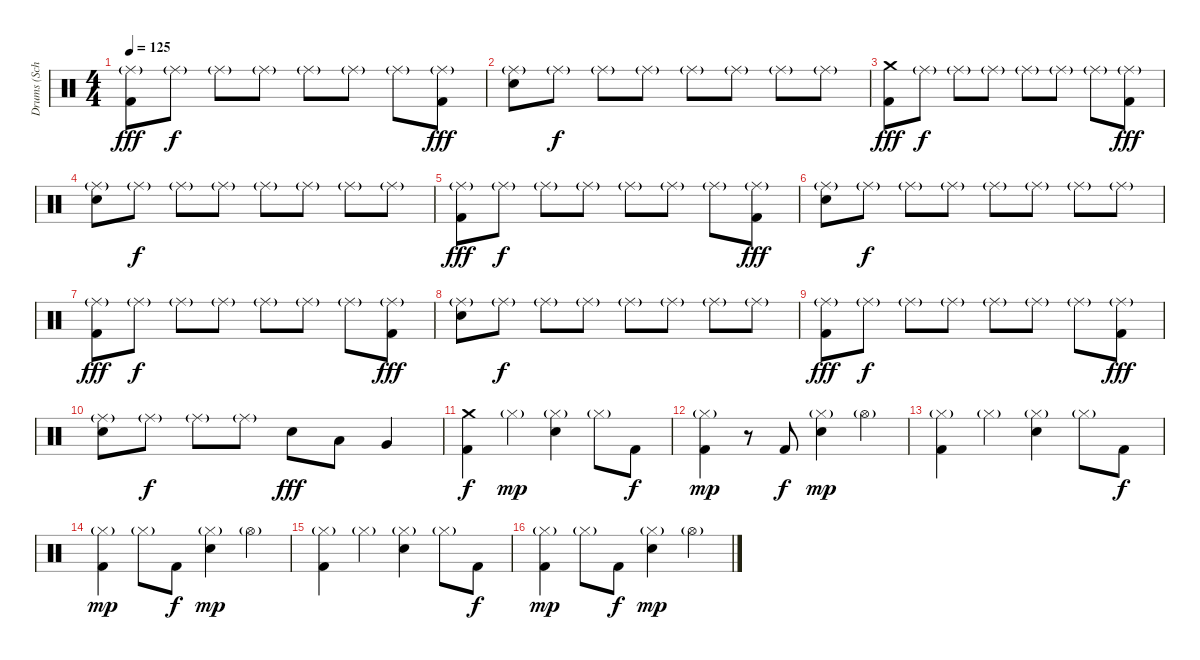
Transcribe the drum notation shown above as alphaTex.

\track ("Drums (Schill)" "Drums (Sch") {instrument percussion}
\staff {score}
\articulation defaults
\ts (4 4)
\tempo 125
\clef neutral
\ks c
("Ride (middle)"{g} "Kick (hit) 2").8{dy fff} "Ride (middle)"{g}.8{dy f} "Ride (middle)"{g}.8 "Ride (middle)"{g}.8 "Ride (middle)"{g}.8 "Ride (middle)"{g}.8 "Ride (middle)"{g}.8 ("Ride (middle)"{g} "Kick (hit) 2").8{dy fff} |
("Ride (middle)"{g} "Electric Snare (hit)").8 "Ride (middle)"{g}.8{dy f} "Ride (middle)"{g}.8 "Ride (middle)"{g}.8 "Ride (middle)"{g}.8 "Ride (middle)"{g}.8 "Ride (middle)"{g}.8 "Ride (middle)"{g}.8 |
("Crash medium (hit)" "Kick (hit) 2").8{dy fff} "Ride (middle)"{g}.8{dy f} "Ride (middle)"{g}.8 "Ride (middle)"{g}.8 "Ride (middle)"{g}.8 "Ride (middle)"{g}.8 "Ride (middle)"{g}.8 ("Ride (middle)"{g} "Kick (hit) 2").8{dy fff} |
("Ride (middle)"{g} "Electric Snare (hit)").8 "Ride (middle)"{g}.8{dy f} "Ride (middle)"{g}.8 "Ride (middle)"{g}.8 "Ride (middle)"{g}.8 "Ride (middle)"{g}.8 "Ride (middle)"{g}.8 "Ride (middle)"{g}.8 |
("Ride (middle)"{g} "Kick (hit) 2").8{dy fff} "Ride (middle)"{g}.8{dy f} "Ride (middle)"{g}.8 "Ride (middle)"{g}.8 "Ride (middle)"{g}.8 "Ride (middle)"{g}.8 "Ride (middle)"{g}.8 ("Ride (middle)"{g} "Kick (hit) 2").8{dy fff} |
("Ride (middle)"{g} "Electric Snare (hit)").8 "Ride (middle)"{g}.8{dy f} "Ride (middle)"{g}.8 "Ride (middle)"{g}.8 "Ride (middle)"{g}.8 "Ride (middle)"{g}.8 "Ride (middle)"{g}.8 "Ride (middle)"{g}.8 |
("Ride (middle)"{g} "Kick (hit) 2").8{dy fff} "Ride (middle)"{g}.8{dy f} "Ride (middle)"{g}.8 "Ride (middle)"{g}.8 "Ride (middle)"{g}.8 "Ride (middle)"{g}.8 "Ride (middle)"{g}.8 ("Ride (middle)"{g} "Kick (hit) 2").8{dy fff} |
("Ride (middle)"{g} "Electric Snare (hit)").8 "Ride (middle)"{g}.8{dy f} "Ride (middle)"{g}.8 "Ride (middle)"{g}.8 "Ride (middle)"{g}.8 "Ride (middle)"{g}.8 "Ride (middle)"{g}.8 "Ride (middle)"{g}.8 |
("Ride (middle)"{g} "Kick (hit) 2").8{dy fff} "Ride (middle)"{g}.8{dy f} "Ride (middle)"{g}.8 "Ride (middle)"{g}.8 "Ride (middle)"{g}.8 "Ride (middle)"{g}.8 "Ride (middle)"{g}.8 ("Ride (middle)"{g} "Kick (hit) 2").8{dy fff} |
("Ride (middle)"{g} "Electric Snare (hit)").8 "Ride (middle)"{g}.8{dy f} "Ride (middle)"{g}.8 "Ride (middle)"{g}.8 "Electric Snare (hit)".8{dy fff} "Low Tom (hit)".8 "Very Low Tom (hit)".4 |
("Crash medium (hit)" "Kick (hit) 2").4{dy f} "Hi-Hat (closed)"{g}.4{dy mp} ("Hi-Hat (closed)"{g} "Electric Snare (hit)").4 "Hi-Hat (closed)"{g}.8 "Kick (hit) 2".8{dy f} |
("Hi-Hat (closed)"{g} "Kick (hit) 2").4{dy mp} r.8 "Kick (hit) 2".8{dy f} ("Hi-Hat (closed)"{g} "Electric Snare (hit)").4{dy mp} "Hi-Hat (open)"{g}.4 |
("Hi-Hat (closed)"{g} "Kick (hit) 2").4 "Hi-Hat (closed)"{g}.4 ("Hi-Hat (closed)"{g} "Electric Snare (hit)").4 "Hi-Hat (closed)"{g}.8 "Kick (hit) 2".8{dy f} |
("Hi-Hat (closed)"{g} "Kick (hit) 2").4{dy mp} "Hi-Hat (closed)"{g}.8 "Kick (hit) 2".8{dy f} ("Hi-Hat (closed)"{g} "Electric Snare (hit)").4{dy mp} "Hi-Hat (open)"{g}.4 |
("Hi-Hat (closed)"{g} "Kick (hit) 2").4 "Hi-Hat (closed)"{g}.4 ("Hi-Hat (closed)"{g} "Electric Snare (hit)").4 "Hi-Hat (closed)"{g}.8 "Kick (hit) 2".8{dy f} |
("Hi-Hat (closed)"{g} "Kick (hit) 2").4{dy mp} "Hi-Hat (closed)"{g}.8 "Kick (hit) 2".8{dy f} ("Hi-Hat (closed)"{g} "Electric Snare (hit)").4{dy mp} "Hi-Hat (open)"{g}.4
